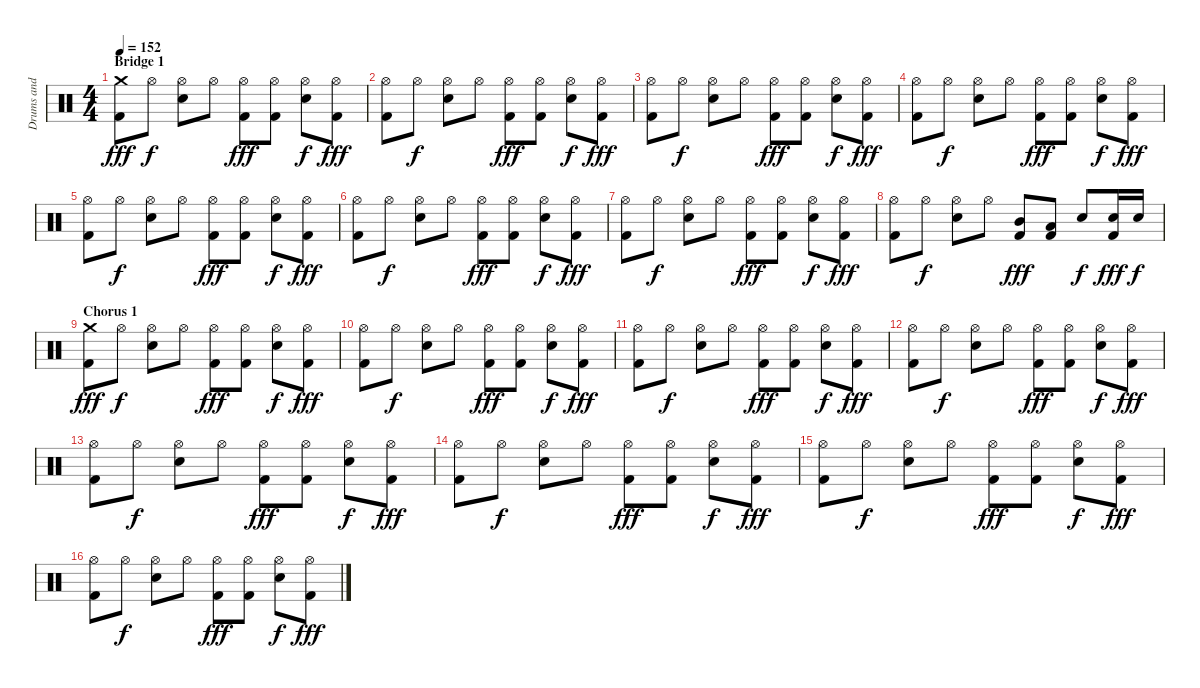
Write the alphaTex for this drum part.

\track ("Drums and Percussion" "Drums and ") {instrument percussion}
\staff {score}
\articulation defaults
\ts (4 4)
\section ("" "Bridge 1")
\tempo 152
\clef neutral
\ks c
("Crash medium (hit)" "Kick (hit) 2").8{dy fff} "Hi-Hat (open)".8{dy f} ("Hi-Hat (open)" "Snare (hit) 2").8 "Hi-Hat (open)".8 ("Hi-Hat (open)" "Kick (hit) 2").8{dy fff} ("Hi-Hat (open)" "Kick (hit) 2").8 ("Hi-Hat (open)" "Snare (hit) 2").8{dy f} ("Hi-Hat (open)" "Kick (hit) 2").8{dy fff} |
("Hi-Hat (open)" "Kick (hit) 2").8 "Hi-Hat (open)".8{dy f} ("Hi-Hat (open)" "Snare (hit) 2").8 "Hi-Hat (open)".8 ("Hi-Hat (open)" "Kick (hit) 2").8{dy fff} ("Hi-Hat (open)" "Kick (hit) 2").8 ("Hi-Hat (open)" "Snare (hit) 2").8{dy f} ("Hi-Hat (open)" "Kick (hit) 2").8{dy fff} |
("Hi-Hat (open)" "Kick (hit) 2").8 "Hi-Hat (open)".8{dy f} ("Hi-Hat (open)" "Snare (hit) 2").8 "Hi-Hat (open)".8 ("Hi-Hat (open)" "Kick (hit) 2").8{dy fff} ("Hi-Hat (open)" "Kick (hit) 2").8 ("Hi-Hat (open)" "Snare (hit) 2").8{dy f} ("Hi-Hat (open)" "Kick (hit) 2").8{dy fff} |
("Hi-Hat (open)" "Kick (hit) 2").8 "Hi-Hat (open)".8{dy f} ("Hi-Hat (open)" "Snare (hit) 2").8 "Hi-Hat (open)".8 ("Hi-Hat (open)" "Kick (hit) 2").8{dy fff} ("Hi-Hat (open)" "Kick (hit) 2").8 ("Hi-Hat (open)" "Snare (hit) 2").8{dy f} ("Hi-Hat (open)" "Kick (hit) 2").8{dy fff} |
("Hi-Hat (open)" "Kick (hit) 2").8 "Hi-Hat (open)".8{dy f} ("Hi-Hat (open)" "Snare (hit) 2").8 "Hi-Hat (open)".8 ("Hi-Hat (open)" "Kick (hit) 2").8{dy fff} ("Hi-Hat (open)" "Kick (hit) 2").8 ("Hi-Hat (open)" "Snare (hit) 2").8{dy f} ("Hi-Hat (open)" "Kick (hit) 2").8{dy fff} |
("Hi-Hat (open)" "Kick (hit) 2").8 "Hi-Hat (open)".8{dy f} ("Hi-Hat (open)" "Snare (hit) 2").8 "Hi-Hat (open)".8 ("Hi-Hat (open)" "Kick (hit) 2").8{dy fff} ("Hi-Hat (open)" "Kick (hit) 2").8 ("Hi-Hat (open)" "Snare (hit) 2").8{dy f} ("Hi-Hat (open)" "Kick (hit) 2").8{dy fff} |
("Hi-Hat (open)" "Kick (hit) 2").8 "Hi-Hat (open)".8{dy f} ("Hi-Hat (open)" "Snare (hit) 2").8 "Hi-Hat (open)".8 ("Hi-Hat (open)" "Kick (hit) 2").8{dy fff} ("Hi-Hat (open)" "Kick (hit) 2").8 ("Hi-Hat (open)" "Snare (hit) 2").8{dy f} ("Hi-Hat (open)" "Kick (hit) 2").8{dy fff} |
("Hi-Hat (open)" "Kick (hit) 2").8 "Hi-Hat (open)".8{dy f} ("Hi-Hat (open)" "Snare (hit) 2").8 "Hi-Hat (open)".8 ("Mid Tom (hit)" "Kick (hit) 2").8{dy fff} ("Low Tom (hit)" "Kick (hit) 2").8 "Snare (hit) 2".8{dy f} ("Snare (hit) 2" "Kick (hit) 2").16{dy fff} "Snare (hit) 2".16{dy f} |
\section ("" "Chorus 1")
("Crash medium (hit)" "Kick (hit) 2").8{dy fff} "Hi-Hat (open)".8{dy f} ("Hi-Hat (open)" "Snare (hit) 2").8 "Hi-Hat (open)".8 ("Hi-Hat (open)" "Kick (hit) 2").8{dy fff} ("Hi-Hat (open)" "Kick (hit) 2").8 ("Hi-Hat (open)" "Snare (hit) 2").8{dy f} ("Hi-Hat (open)" "Kick (hit) 2").8{dy fff} |
("Hi-Hat (open)" "Kick (hit) 2").8 "Hi-Hat (open)".8{dy f} ("Hi-Hat (open)" "Snare (hit) 2").8 "Hi-Hat (open)".8 ("Hi-Hat (open)" "Kick (hit) 2").8{dy fff} ("Hi-Hat (open)" "Kick (hit) 2").8 ("Hi-Hat (open)" "Snare (hit) 2").8{dy f} ("Hi-Hat (open)" "Kick (hit) 2").8{dy fff} |
("Hi-Hat (open)" "Kick (hit) 2").8 "Hi-Hat (open)".8{dy f} ("Hi-Hat (open)" "Snare (hit) 2").8 "Hi-Hat (open)".8 ("Hi-Hat (open)" "Kick (hit) 2").8{dy fff} ("Hi-Hat (open)" "Kick (hit) 2").8 ("Hi-Hat (open)" "Snare (hit) 2").8{dy f} ("Hi-Hat (open)" "Kick (hit) 2").8{dy fff} |
("Hi-Hat (open)" "Kick (hit) 2").8 "Hi-Hat (open)".8{dy f} ("Hi-Hat (open)" "Snare (hit) 2").8 "Hi-Hat (open)".8 ("Hi-Hat (open)" "Kick (hit) 2").8{dy fff} ("Hi-Hat (open)" "Kick (hit) 2").8 ("Hi-Hat (open)" "Snare (hit) 2").8{dy f} ("Hi-Hat (open)" "Kick (hit) 2").8{dy fff} |
("Hi-Hat (open)" "Kick (hit) 2").8 "Hi-Hat (open)".8{dy f} ("Hi-Hat (open)" "Snare (hit) 2").8 "Hi-Hat (open)".8 ("Hi-Hat (open)" "Kick (hit) 2").8{dy fff} ("Hi-Hat (open)" "Kick (hit) 2").8 ("Hi-Hat (open)" "Snare (hit) 2").8{dy f} ("Hi-Hat (open)" "Kick (hit) 2").8{dy fff} |
("Hi-Hat (open)" "Kick (hit) 2").8 "Hi-Hat (open)".8{dy f} ("Hi-Hat (open)" "Snare (hit) 2").8 "Hi-Hat (open)".8 ("Hi-Hat (open)" "Kick (hit) 2").8{dy fff} ("Hi-Hat (open)" "Kick (hit) 2").8 ("Hi-Hat (open)" "Snare (hit) 2").8{dy f} ("Hi-Hat (open)" "Kick (hit) 2").8{dy fff} |
("Hi-Hat (open)" "Kick (hit) 2").8 "Hi-Hat (open)".8{dy f} ("Hi-Hat (open)" "Snare (hit) 2").8 "Hi-Hat (open)".8 ("Hi-Hat (open)" "Kick (hit) 2").8{dy fff} ("Hi-Hat (open)" "Kick (hit) 2").8 ("Hi-Hat (open)" "Snare (hit) 2").8{dy f} ("Hi-Hat (open)" "Kick (hit) 2").8{dy fff} |
("Hi-Hat (open)" "Kick (hit) 2").8 "Hi-Hat (open)".8{dy f} ("Hi-Hat (open)" "Snare (hit) 2").8 "Hi-Hat (open)".8 ("Hi-Hat (open)" "Kick (hit) 2").8{dy fff} ("Hi-Hat (open)" "Kick (hit) 2").8 ("Hi-Hat (open)" "Snare (hit) 2").8{dy f} ("Hi-Hat (open)" "Kick (hit) 2").8{dy fff}
